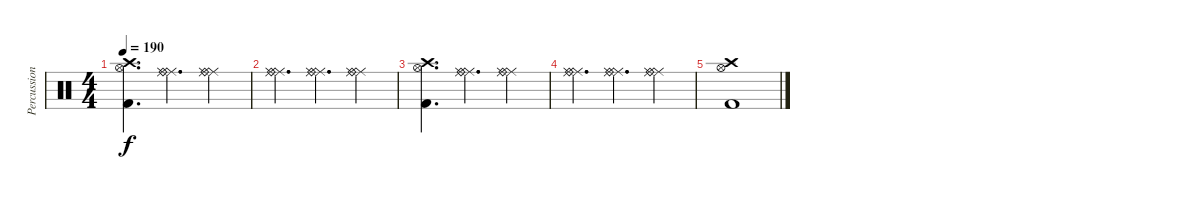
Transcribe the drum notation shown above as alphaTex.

\track ("Percussion" "Percussion") {instrument percussion}
\staff {score}
\articulation defaults
\ts (4 4)
\tempo 190
\clef neutral
\ks c
("Kick (hit) 2" "Hi-Hat (open)" "Crash high (hit)").4{d dy f} ("Ride (middle)" "Ride (middle)" "Ride (bell)").4{d} ("Ride (middle)" "Ride (middle)" "Ride (bell)").4 |
("Ride (middle)" "Ride (middle)" "Ride (bell)").4{d} ("Ride (middle)" "Ride (middle)" "Ride (bell)").4{d} ("Ride (middle)" "Ride (middle)" "Ride (bell)").4 |
("Kick (hit) 2" "Hi-Hat (open)" "Crash high (hit)").4{d} ("Ride (middle)" "Ride (middle)" "Ride (bell)").4{d} ("Ride (middle)" "Ride (middle)" "Ride (bell)").4 |
("Ride (middle)" "Ride (middle)" "Ride (bell)").4{d} ("Ride (middle)" "Ride (middle)" "Ride (bell)").4{d} ("Ride (middle)" "Ride (middle)" "Ride (bell)").4 |
("Kick (hit) 2" "Hi-Hat (open)" "Crash high (hit)").1
